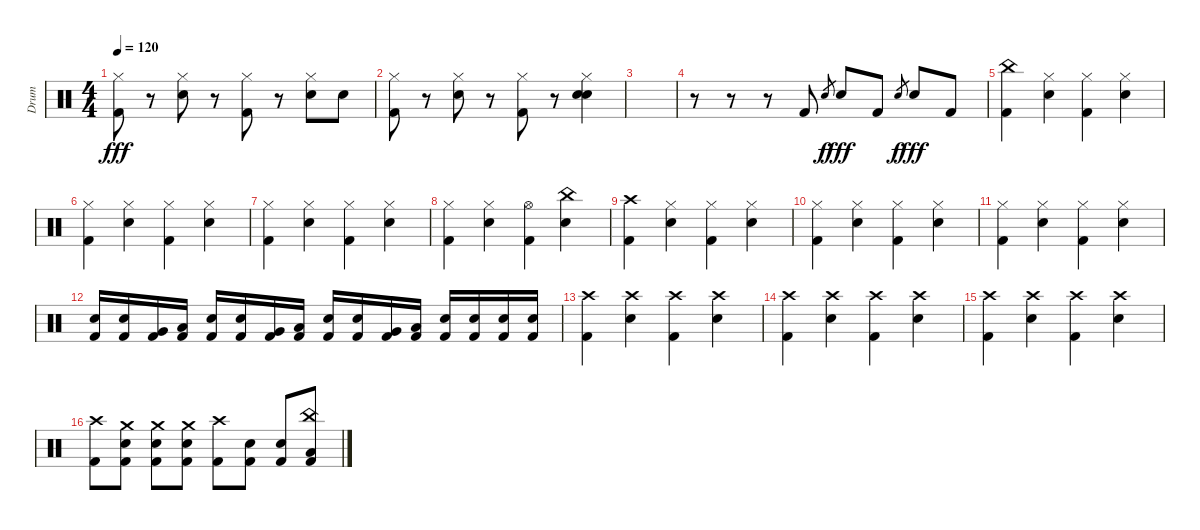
\track ("Drum" "Drum") {instrument percussion}
\staff {score}
\articulation defaults
\ts (4 4)
\tempo 120
\clef neutral
\ks c
("Hi-Hat (closed)" "Kick (hit) 2").8{dy fff} r.8 ("Hi-Hat (closed)" "Snare (hit) 2").8 r.8 ("Hi-Hat (closed)" "Kick (hit) 2").8 r.8 ("Hi-Hat (closed)" "Snare (hit) 2").8 "Snare (hit)".8 |
("Hi-Hat (closed)" "Kick (hit) 2").8 r.8 ("Hi-Hat (closed)" "Snare (hit) 2").8 r.8 ("Hi-Hat (closed)" "Kick (hit) 2").8 r.8 ("Hi-Hat (closed)" "Snare (hit) 2" "Electric Snare (hit)").4 |
|
r.8 r.8 r.8 "Kick (hit) 2".8 "Snare (hit) 2".8{gr dy f} "Snare (hit) 2".8{dy fff} "Kick (hit) 2".8 "Snare (hit) 2".8{gr dy f} "Snare (hit) 2".8{dy fff} "Kick (hit) 2".8 |
("China (hit)" "Kick (hit) 2").4 ("Hi-Hat (closed)" "Snare (hit) 2").4 ("Hi-Hat (closed)" "Kick (hit) 2").4 ("Hi-Hat (closed)" "Snare (hit) 2").4 |
("Hi-Hat (closed)" "Kick (hit) 2").4 ("Hi-Hat (closed)" "Snare (hit) 2").4 ("Hi-Hat (closed)" "Kick (hit) 2").4 ("Hi-Hat (closed)" "Snare (hit) 2").4 |
("Hi-Hat (closed)" "Kick (hit) 2").4 ("Hi-Hat (closed)" "Snare (hit) 2").4 ("Hi-Hat (closed)" "Kick (hit) 2").4 ("Hi-Hat (closed)" "Snare (hit) 2").4 |
("Hi-Hat (closed)" "Kick (hit) 2").4 ("Hi-Hat (closed)" "Snare (hit) 2").4 ("Hi-Hat (open)" "Kick (hit) 2").4 ("China (hit)" "Snare (hit) 2").4 |
("Crash high (hit)" "Kick (hit) 2").4 ("Hi-Hat (closed)" "Snare (hit) 2").4 ("Hi-Hat (closed)" "Kick (hit) 2").4 ("Hi-Hat (closed)" "Snare (hit) 2").4 |
("Hi-Hat (closed)" "Kick (hit) 2").4 ("Hi-Hat (closed)" "Snare (hit) 2").4 ("Hi-Hat (closed)" "Kick (hit) 2").4 ("Hi-Hat (closed)" "Snare (hit) 2").4 |
("Hi-Hat (closed)" "Kick (hit) 2").4 ("Hi-Hat (closed)" "Snare (hit) 2").4 ("Hi-Hat (closed)" "Kick (hit) 2").4 ("Hi-Hat (closed)" "Snare (hit) 2").4 |
("Snare (hit) 2" "Kick (hit) 2").16 ("Snare (hit) 2" "Kick (hit) 2").16 ("Very Low Tom (hit)" "Kick (hit) 2").16 ("Low Floor Tom (hit)" "Kick (hit) 2").16 ("Snare (hit) 2" "Kick (hit) 2").16 ("Snare (hit) 2" "Kick (hit) 2").16 ("Very Low Tom (hit)" "Kick (hit) 2").16 ("Low Floor Tom (hit)" "Kick (hit) 2").16 ("Snare (hit) 2" "Kick (hit) 2").16 ("Snare (hit) 2" "Kick (hit) 2").16 ("Very Low Tom (hit)" "Kick (hit) 2").16 ("Low Floor Tom (hit)" "Kick (hit) 2").16 ("Snare (hit) 2" "Kick (hit) 2").16 ("Snare (hit) 2" "Kick (hit) 2").16 ("Snare (hit) 2" "Kick (hit) 2").16 ("Snare (hit) 2" "Kick (hit) 2").16 |
("Crash high (hit)" "Kick (hit) 2").4 ("Crash high (hit)" "Snare (hit) 2").4 ("Crash high (hit)" "Kick (hit) 2").4 ("Crash high (hit)" "Snare (hit) 2").4 |
("Crash high (hit)" "Kick (hit) 2").4 ("Crash high (hit)" "Snare (hit) 2").4 ("Crash high (hit)" "Kick (hit) 2").4 ("Crash high (hit)" "Snare (hit) 2").4 |
("Crash high (hit)" "Kick (hit) 2").4 ("Crash high (hit)" "Snare (hit) 2").4 ("Crash high (hit)" "Kick (hit) 2").4 ("Crash high (hit)" "Snare (hit) 2").4 |
("Crash high (hit)" "Kick (hit) 2").8 ("Crash medium (hit)" "Snare (hit) 2" "Kick (hit) 2").8 ("Crash medium (hit)" "Snare (hit) 2" "Kick (hit) 2").8 ("Crash medium (hit)" "Snare (hit) 2" "Kick (hit) 2").8 ("Crash high (hit)" "Kick (hit) 2").8 ("Snare (hit) 2" "Kick (hit) 2").8 ("Snare (hit) 2" "Kick (hit) 2").8 ("China (hit)" "Low Floor Tom (hit)" "Kick (hit) 2").8
